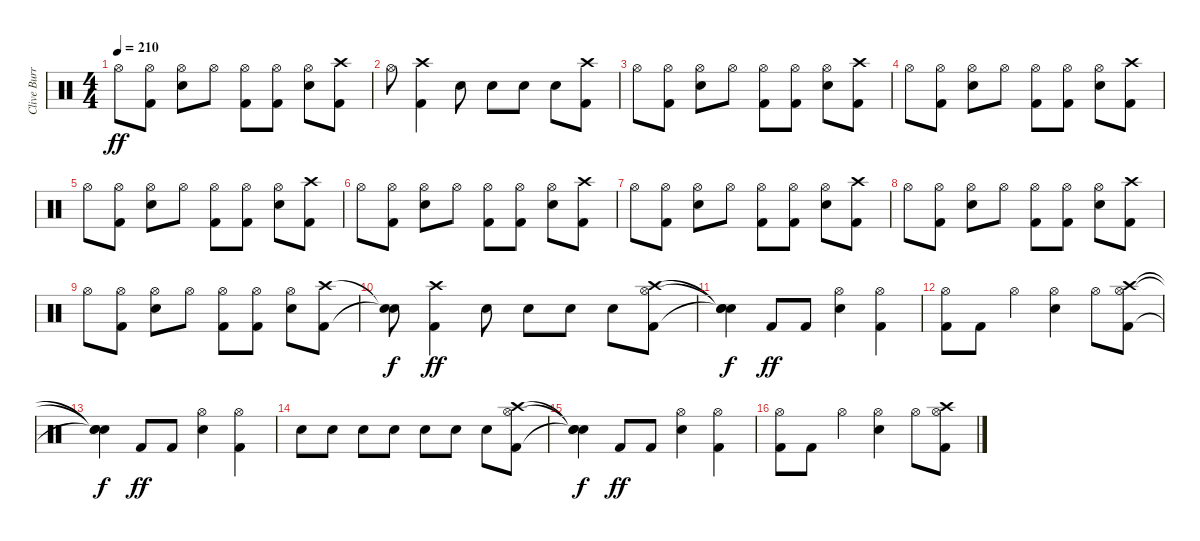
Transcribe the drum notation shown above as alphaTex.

\track ("Clive Burr" "Clive Burr") {instrument percussion}
\staff {score}
\articulation defaults
\ts (4 4)
\tempo 210
\clef neutral
\ks c "Hi-Hat (open)".8{dy ff}
("Kick (hit) 2" "Hi-Hat (open)").8 ("Snare (hit) 2" "Hi-Hat (open)").8 "Hi-Hat (open)".8 ("Kick (hit) 2" "Hi-Hat (open)").8 ("Kick (hit) 2" "Hi-Hat (open)").8 ("Snare (hit) 2" "Hi-Hat (open)").8 ("Kick (hit) 2" "Crash high (hit)").8 |
"Hi-Hat (open)".8 ("Kick (hit) 2" "Crash high (hit)").4 "Snare (hit) 2".8 "Snare (hit) 2".8 "Snare (hit) 2".8 "Snare (hit) 2".8 ("Kick (hit) 2" "Crash high (hit)").8 |
"Hi-Hat (open)".8 ("Kick (hit) 2" "Hi-Hat (open)").8 ("Snare (hit) 2" "Hi-Hat (open)").8 "Hi-Hat (open)".8 ("Kick (hit) 2" "Hi-Hat (open)").8 ("Kick (hit) 2" "Hi-Hat (open)").8 ("Snare (hit) 2" "Hi-Hat (open)").8 ("Kick (hit) 2" "Crash high (hit)").8 |
"Hi-Hat (open)".8 ("Kick (hit) 2" "Hi-Hat (open)").8 ("Snare (hit) 2" "Hi-Hat (open)").8 "Hi-Hat (open)".8 ("Kick (hit) 2" "Hi-Hat (open)").8 ("Kick (hit) 2" "Hi-Hat (open)").8 ("Snare (hit) 2" "Hi-Hat (open)").8 ("Kick (hit) 2" "Crash high (hit)").8 |
"Hi-Hat (open)".8 ("Kick (hit) 2" "Hi-Hat (open)").8 ("Snare (hit) 2" "Hi-Hat (open)").8 "Hi-Hat (open)".8 ("Kick (hit) 2" "Hi-Hat (open)").8 ("Kick (hit) 2" "Hi-Hat (open)").8 ("Snare (hit) 2" "Hi-Hat (open)").8 ("Kick (hit) 2" "Crash high (hit)").8 |
"Hi-Hat (open)".8 ("Kick (hit) 2" "Hi-Hat (open)").8 ("Snare (hit) 2" "Hi-Hat (open)").8 "Hi-Hat (open)".8 ("Kick (hit) 2" "Hi-Hat (open)").8 ("Kick (hit) 2" "Hi-Hat (open)").8 ("Snare (hit) 2" "Hi-Hat (open)").8 ("Kick (hit) 2" "Crash high (hit)").8 |
"Hi-Hat (open)".8 ("Kick (hit) 2" "Hi-Hat (open)").8 ("Snare (hit) 2" "Hi-Hat (open)").8 "Hi-Hat (open)".8 ("Kick (hit) 2" "Hi-Hat (open)").8 ("Kick (hit) 2" "Hi-Hat (open)").8 ("Snare (hit) 2" "Hi-Hat (open)").8 ("Kick (hit) 2" "Crash high (hit)").8 |
"Hi-Hat (open)".8 ("Kick (hit) 2" "Hi-Hat (open)").8 ("Snare (hit) 2" "Hi-Hat (open)").8 "Hi-Hat (open)".8 ("Kick (hit) 2" "Hi-Hat (open)").8 ("Kick (hit) 2" "Hi-Hat (open)").8 ("Snare (hit) 2" "Hi-Hat (open)").8 ("Kick (hit) 2" "Crash high (hit)").8 |
"Hi-Hat (open)".8 ("Kick (hit) 2" "Hi-Hat (open)").8 ("Snare (hit) 2" "Hi-Hat (open)").8 "Hi-Hat (open)".8 ("Kick (hit) 2" "Hi-Hat (open)").8 ("Kick (hit) 2" "Hi-Hat (open)").8 ("Snare (hit) 2" "Hi-Hat (open)").8 ("Kick (hit) 2" "Crash high (hit)").8 |
("Snare (hit)"{t} "Snare (hit)"{t}).8{dy f} ("Kick (hit) 2" "Crash high (hit)").4{dy ff} "Snare (hit) 2".8 "Snare (hit) 2".8 "Snare (hit) 2".8 "Snare (hit) 2".8 ("Kick (hit) 2" "Hi-Hat (open)" "Crash high (hit)").8 |
("Snare (hit)"{t} "Snare (hit)"{t} "Snare (hit)"{t}).4{dy f} "Kick (hit) 2".8{dy ff} "Kick (hit) 2".8 ("Snare (hit) 2" "Hi-Hat (open)").4 ("Kick (hit) 2" "Hi-Hat (open)").4 |
("Kick (hit) 2" "Hi-Hat (open)").8 "Kick (hit) 2".8 "Hi-Hat (open)".4 ("Snare (hit) 2" "Hi-Hat (open)").4 "Hi-Hat (open)".8 ("Kick (hit) 2" "Hi-Hat (open)" "Crash high (hit)").8 |
("Snare (hit)"{t} "Snare (hit)"{t} "Snare (hit)"{t}).4{dy f} "Kick (hit) 2".8{dy ff} "Kick (hit) 2".8 ("Snare (hit) 2" "Hi-Hat (open)").4 ("Kick (hit) 2" "Hi-Hat (open)").4 |
"Snare (hit) 2".8 "Snare (hit) 2".8 "Snare (hit) 2".8 "Snare (hit) 2".8 "Snare (hit) 2".8 "Snare (hit) 2".8 "Snare (hit) 2".8 ("Kick (hit) 2" "Hi-Hat (open)" "Crash high (hit)").8 |
("Snare (hit)"{t} "Snare (hit)"{t} "Snare (hit)"{t}).4{dy f} "Kick (hit) 2".8{dy ff} "Kick (hit) 2".8 ("Snare (hit) 2" "Hi-Hat (open)").4 ("Kick (hit) 2" "Hi-Hat (open)").4 |
("Kick (hit) 2" "Hi-Hat (open)").8 "Kick (hit) 2".8 "Hi-Hat (open)".4 ("Snare (hit) 2" "Hi-Hat (open)").4 "Hi-Hat (open)".8 ("Kick (hit) 2" "Hi-Hat (open)" "Crash high (hit)").8
